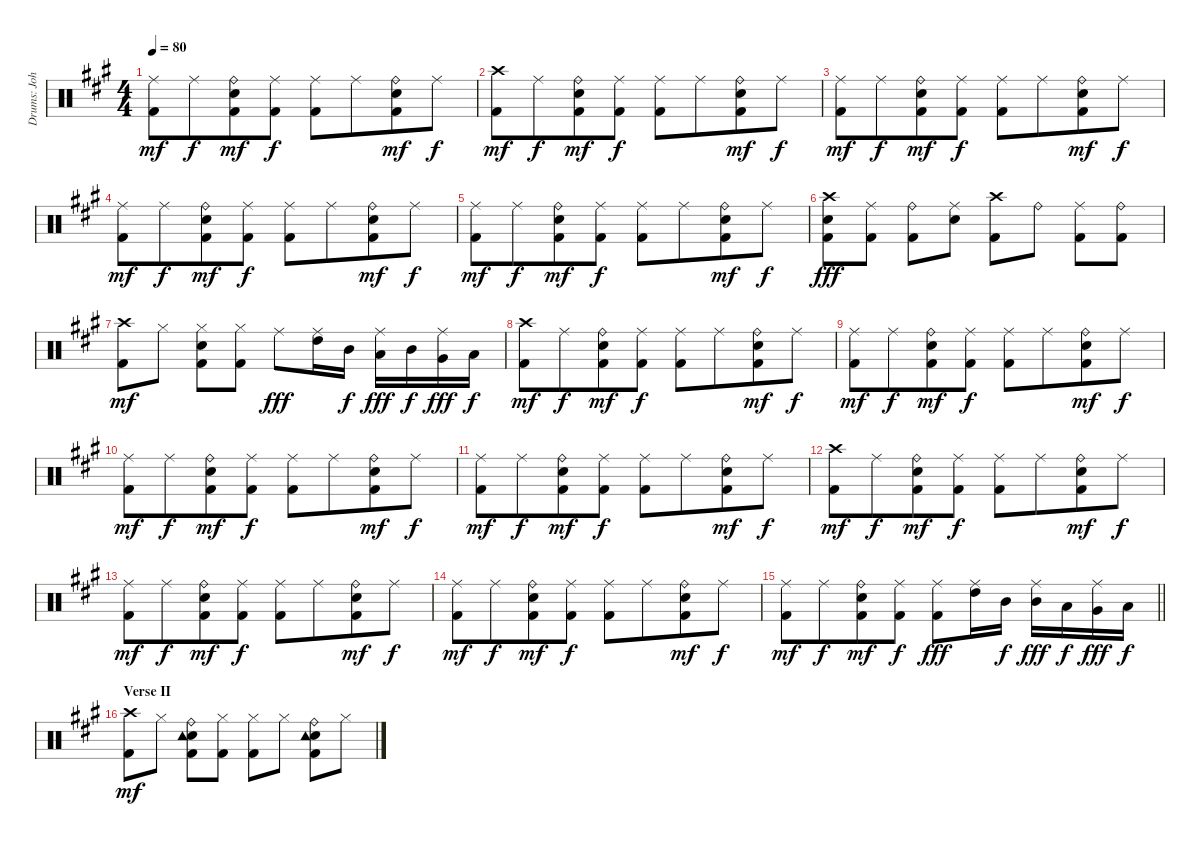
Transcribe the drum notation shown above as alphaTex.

\track ("Drums: John Wilcox" "Drums: Joh") {instrument percussion}
\staff {score}
\articulation defaults
\ts (4 4)
\tempo 80
\clef neutral
\ks a
("Ride (middle)" "Kick (hit) 2").8{dy mf} "Ride (middle)".8{dy f beam merge} ("Ride (bell)" "Snare (hit) 2" "Kick (hit) 2").8{dy mf} ("Ride (middle)" "Kick (hit) 2").8{dy f} ("Ride (middle)" "Kick (hit) 2").8 "Ride (middle)".8{beam merge} ("Ride (bell)" "Snare (hit) 2" "Kick (hit) 2").8{dy mf} "Ride (middle)".8{dy f} |
("Crash high (hit)" "Kick (hit) 2").8{dy mf} "Ride (middle)".8{dy f beam merge} ("Ride (bell)" "Snare (hit) 2" "Kick (hit) 2").8{dy mf} ("Ride (middle)" "Kick (hit) 2").8{dy f} ("Ride (middle)" "Kick (hit) 2").8 "Ride (middle)".8{beam merge} ("Ride (bell)" "Snare (hit) 2" "Kick (hit) 2").8{dy mf} "Ride (middle)".8{dy f} |
("Ride (middle)" "Kick (hit) 2").8{dy mf} "Ride (middle)".8{dy f beam merge} ("Ride (bell)" "Snare (hit) 2" "Kick (hit) 2").8{dy mf} ("Ride (middle)" "Kick (hit) 2").8{dy f} ("Ride (middle)" "Kick (hit) 2").8 "Ride (middle)".8{beam merge} ("Ride (bell)" "Snare (hit) 2" "Kick (hit) 2").8{dy mf} "Ride (middle)".8{dy f} |
("Ride (middle)" "Kick (hit) 2").8{dy mf} "Ride (middle)".8{dy f beam merge} ("Ride (bell)" "Snare (hit) 2" "Kick (hit) 2").8{dy mf} ("Ride (middle)" "Kick (hit) 2").8{dy f} ("Ride (middle)" "Kick (hit) 2").8 "Ride (middle)".8{beam merge} ("Ride (bell)" "Snare (hit) 2" "Kick (hit) 2").8{dy mf} "Ride (middle)".8{dy f} |
("Ride (middle)" "Kick (hit) 2").8{dy mf} "Ride (middle)".8{dy f beam merge} ("Ride (bell)" "Snare (hit) 2" "Kick (hit) 2").8{dy mf} ("Ride (middle)" "Kick (hit) 2").8{dy f} ("Ride (middle)" "Kick (hit) 2").8 "Ride (middle)".8{beam merge} ("Ride (bell)" "Snare (hit) 2" "Kick (hit) 2").8{dy mf} "Ride (middle)".8{dy f} |
("Crash high (hit)" "Snare (hit) 2" "Kick (hit) 2").8{dy fff} ("Ride (middle)" "Kick (hit) 2").8 ("Ride (bell)" "Kick (hit) 2").8 ("Ride (middle)" "Snare (hit) 2").8 ("Crash high (hit)" "Kick (hit) 2").8 "Ride (bell)".8 ("Ride (middle)" "Kick (hit) 2").8 ("Ride (bell)" "Kick (hit) 2").8 |
("Crash high (hit)" "Kick (hit) 2").8{dy mf} "Hi-Hat (closed)".8 ("Hi-Hat (closed)" "Snare (hit) 2" "Kick (hit) 2").8 ("Hi-Hat (closed)" "Kick (hit) 2").8 "Ride (middle)".8{dy fff} ("Ride (middle)" "High Tom (hit)").16 "Mid Tom (hit)".16{dy f} ("Ride (middle)" "Low Tom (hit)").16{dy fff} "Mid Tom (hit)".16{dy f} ("Ride (middle)" "Very Low Tom (hit)").16{dy fff} "Low Floor Tom (hit)".16{dy f} |
("Crash high (hit)" "Kick (hit) 2").8{dy mf} "Ride (middle)".8{dy f beam merge} ("Ride (bell)" "Snare (hit) 2" "Kick (hit) 2").8{dy mf} ("Ride (middle)" "Kick (hit) 2").8{dy f} ("Ride (middle)" "Kick (hit) 2").8 "Ride (middle)".8{beam merge} ("Ride (bell)" "Snare (hit) 2" "Kick (hit) 2").8{dy mf} "Ride (middle)".8{dy f} |
("Ride (middle)" "Kick (hit) 2").8{dy mf} "Ride (middle)".8{dy f beam merge} ("Ride (bell)" "Snare (hit) 2" "Kick (hit) 2").8{dy mf} ("Ride (middle)" "Kick (hit) 2").8{dy f} ("Ride (middle)" "Kick (hit) 2").8 "Ride (middle)".8{beam merge} ("Ride (bell)" "Snare (hit) 2" "Kick (hit) 2").8{dy mf} "Ride (middle)".8{dy f} |
("Ride (middle)" "Kick (hit) 2").8{dy mf} "Ride (middle)".8{dy f beam merge} ("Ride (bell)" "Snare (hit) 2" "Kick (hit) 2").8{dy mf} ("Ride (middle)" "Kick (hit) 2").8{dy f} ("Ride (middle)" "Kick (hit) 2").8 "Ride (middle)".8{beam merge} ("Ride (bell)" "Snare (hit) 2" "Kick (hit) 2").8{dy mf} "Ride (middle)".8{dy f} |
("Ride (middle)" "Kick (hit) 2").8{dy mf} "Ride (middle)".8{dy f beam merge} ("Ride (bell)" "Snare (hit) 2" "Kick (hit) 2").8{dy mf} ("Ride (middle)" "Kick (hit) 2").8{dy f} ("Ride (middle)" "Kick (hit) 2").8 "Ride (middle)".8{beam merge} ("Ride (bell)" "Snare (hit) 2" "Kick (hit) 2").8{dy mf} "Ride (middle)".8{dy f} |
("Crash high (hit)" "Kick (hit) 2").8{dy mf} "Ride (middle)".8{dy f beam merge} ("Ride (bell)" "Snare (hit) 2" "Kick (hit) 2").8{dy mf} ("Ride (middle)" "Kick (hit) 2").8{dy f} ("Ride (middle)" "Kick (hit) 2").8 "Ride (middle)".8{beam merge} ("Ride (bell)" "Snare (hit) 2" "Kick (hit) 2").8{dy mf} "Ride (middle)".8{dy f} |
("Ride (middle)" "Kick (hit) 2").8{dy mf} "Ride (middle)".8{dy f beam merge} ("Ride (bell)" "Snare (hit) 2" "Kick (hit) 2").8{dy mf} ("Ride (middle)" "Kick (hit) 2").8{dy f} ("Ride (middle)" "Kick (hit) 2").8 "Ride (middle)".8{beam merge} ("Ride (bell)" "Snare (hit) 2" "Kick (hit) 2").8{dy mf} "Ride (middle)".8{dy f} |
("Ride (middle)" "Kick (hit) 2").8{dy mf} "Ride (middle)".8{dy f beam merge} ("Ride (bell)" "Snare (hit) 2" "Kick (hit) 2").8{dy mf} ("Ride (middle)" "Kick (hit) 2").8{dy f} ("Ride (middle)" "Kick (hit) 2").8 "Ride (middle)".8{beam merge} ("Ride (bell)" "Snare (hit) 2" "Kick (hit) 2").8{dy mf} "Ride (middle)".8{dy f} |
\barLineRight lightlight
("Ride (middle)" "Kick (hit) 2").8{dy mf} "Ride (middle)".8{dy f beam merge} ("Ride (bell)" "Snare (hit) 2" "Kick (hit) 2").8{dy mf} ("Ride (middle)" "Kick (hit) 2").8{dy f} ("Ride (middle)" "Kick (hit) 2").8{dy fff} ("Ride (middle)" "High Tom (hit)").16 "Mid Tom (hit)".16{dy f} ("Ride (middle)" "Mid Tom (hit)").16{dy fff} "Low Tom (hit)".16{dy f} ("Ride (middle)" "Very Low Tom (hit)").16{dy fff} "Low Floor Tom (hit)".16{dy f} |
\section ("" "Verse II")
("Crash high (hit)" "Kick (hit) 2").8{dy mf} "Hi-Hat (closed)".8 ("Ride (bell)" "Snare (hit) 2" "Kick (hit) 2" "Tambourine (hit)").8 ("Hi-Hat (closed)" "Kick (hit) 2").8 ("Hi-Hat (closed)" "Kick (hit) 2").8 "Hi-Hat (closed)".8 ("Ride (bell)" "Snare (hit) 2" "Kick (hit) 2" "Tambourine (hit)").8 "Hi-Hat (closed)".8
